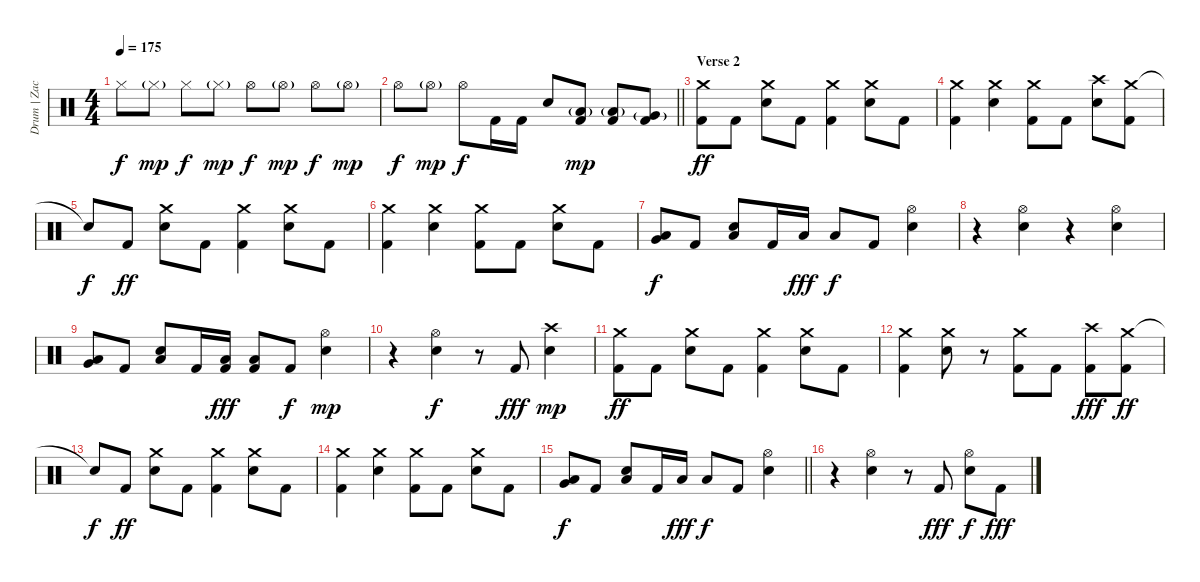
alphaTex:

\track ("Drum | Zac" "Drum | Zac") {instrument percussion}
\staff {score}
\articulation defaults
\ts (4 4)
\tempo 175
\clef neutral
\ks c "Hi-Hat (closed)".8{dy f} "Hi-Hat (closed)"{g}.8{dy mp} "Hi-Hat (closed)".8{dy f} "Hi-Hat (closed)"{g}.8{dy mp} "Hi-Hat (open)".8{dy f} "Hi-Hat (open)"{g}.8{dy mp} "Hi-Hat (open)".8{dy f} "Hi-Hat (open)"{g}.8{dy mp}
|
\barLineRight lightlight "Hi-Hat (open)".8{dy f} "Hi-Hat (open)"{g}.8{dy mp} "Hi-Hat (open)".8{dy f} "Kick (hit) 2".16 "Kick (hit) 2".16 "Electric Snare (hit)".8
("Low Floor Tom (hit)"{g} "Kick (hit) 2").8{dy mp} ("Low Tom (hit)"{g} "Kick (hit) 2").8 ("Very Low Tom (hit)"{g} "Kick (hit) 2").8 |
\section ("" "Verse 2")
("Crash medium (hit)" "Kick (hit) 2").8{dy ff} "Kick (hit) 2".8 ("Crash medium (hit)" "Electric Snare (hit)").8 "Kick (hit) 2".8 ("Crash medium (hit)" "Kick (hit) 2").4 ("Crash medium (hit)" "Electric Snare (hit)").8 "Kick (hit) 2".8 |
("Crash medium (hit)" "Kick (hit) 2").4 ("Crash medium (hit)" "Electric Snare (hit)").4 ("Crash medium (hit)" "Kick (hit) 2").8 "Kick (hit) 2".8 ("Crash high (hit)" "Electric Snare (hit)").8 ("Crash medium (hit)" "Kick (hit) 2").8 |
"Snare (hit)"{t}.8{dy f} "Kick (hit) 2".8{dy ff} ("Crash medium (hit)" "Electric Snare (hit)").8 "Kick (hit) 2".8 ("Crash medium (hit)" "Kick (hit) 2").4 ("Crash medium (hit)" "Electric Snare (hit)").8 "Kick (hit) 2".8 |
("Crash medium (hit)" "Kick (hit) 2").4 ("Crash medium (hit)" "Electric Snare (hit)").4 ("Crash medium (hit)" "Kick (hit) 2").8 "Kick (hit) 2".8 ("Crash medium (hit)" "Electric Snare (hit)").8 "Kick (hit) 2".8 |
("Low Tom (hit)" "Very Low Tom (hit)").8{dy f} "Kick (hit) 2".8 ("Low Tom (hit)" "Electric Snare (hit)").8 "Kick (hit) 2".16 "Low Tom (hit)".16{dy fff} "Low Tom (hit)".8{dy f} "Kick (hit) 2".8 ("Hi-Hat (open)" "Electric Snare (hit)").4 |
r.4 ("Hi-Hat (open)" "Electric Snare (hit)").4 r.4 ("Hi-Hat (open)" "Electric Snare (hit)").4 |
("Low Tom (hit)" "Very Low Tom (hit)").8 "Kick (hit) 2".8 ("Low Tom (hit)" "Electric Snare (hit)").8 "Kick (hit) 2".16 ("Low Tom (hit)" "Kick (hit) 2").16{dy fff} ("Low Tom (hit)" "Kick (hit) 2").8 "Kick (hit) 2".8{dy f} ("Hi-Hat (open)" "Electric Snare (hit)").4{dy mp} |
r.4 ("Hi-Hat (open)" "Electric Snare (hit)").4{dy f} r.8 "Kick (hit) 2".8{dy fff} ("Crash high (hit)" "Electric Snare (hit)").4{dy mp} |
("Crash medium (hit)" "Kick (hit) 2").8{dy ff} "Kick (hit) 2".8 ("Crash medium (hit)" "Electric Snare (hit)").8 "Kick (hit) 2".8 ("Crash medium (hit)" "Kick (hit) 2").4 ("Crash medium (hit)" "Electric Snare (hit)").8 "Kick (hit) 2".8 |
("Crash medium (hit)" "Kick (hit) 2").4 ("Crash medium (hit)" "Electric Snare (hit)").8 r.8 ("Crash medium (hit)" "Kick (hit) 2").8 "Kick (hit) 2".8 ("Crash high (hit)" "Kick (hit) 2").8{dy fff} ("Crash medium (hit)" "Kick (hit) 2").8{dy ff} |
"Snare (hit)"{t}.8{dy f} "Kick (hit) 2".8{dy ff} ("Crash medium (hit)" "Electric Snare (hit)").8 "Kick (hit) 2".8 ("Crash medium (hit)" "Kick (hit) 2").4 ("Crash medium (hit)" "Electric Snare (hit)").8 "Kick (hit) 2".8 |
("Crash medium (hit)" "Kick (hit) 2").4 ("Crash medium (hit)" "Electric Snare (hit)").4 ("Crash medium (hit)" "Kick (hit) 2").8 "Kick (hit) 2".8 ("Crash medium (hit)" "Electric Snare (hit)").8 "Kick (hit) 2".8 |
\barLineRight lightlight
("Low Tom (hit)" "Very Low Tom (hit)").8{dy f} "Kick (hit) 2".8 ("Low Tom (hit)" "Electric Snare (hit)").8 "Kick (hit) 2".16 "Low Tom (hit)".16{dy fff} "Low Tom (hit)".8{dy f} "Kick (hit) 2".8 ("Hi-Hat (open)" "Electric Snare (hit)").4 |
r.4 ("Hi-Hat (open)" "Electric Snare (hit)").4 r.8 "Kick (hit) 2".8{dy fff} ("Hi-Hat (open)" "Electric Snare (hit)").8{dy f} "Kick (hit) 2".8{dy fff}
